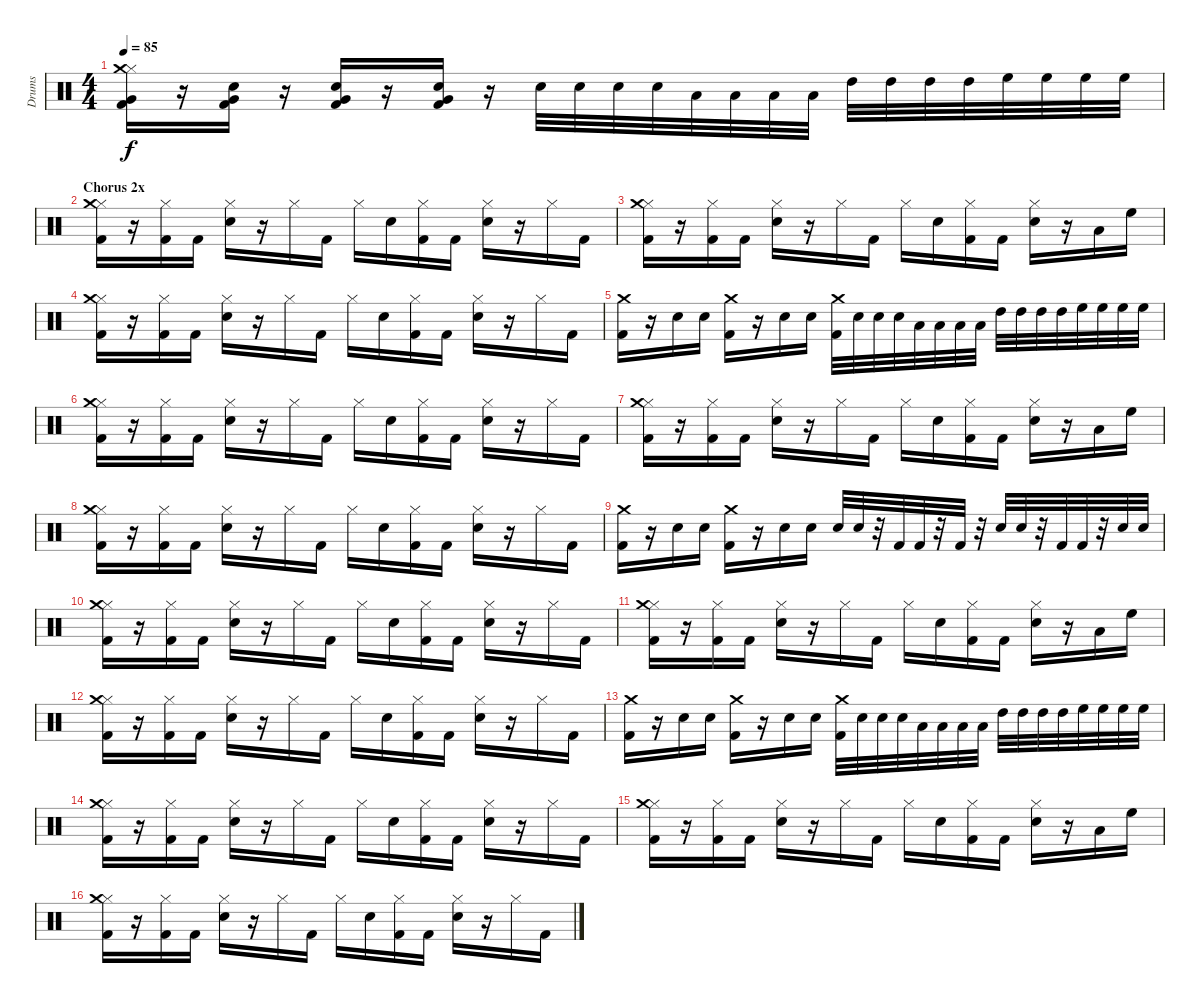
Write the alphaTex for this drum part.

\track ("Drums" "Drums") {instrument percussion}
\staff {score}
\articulation defaults
\ts (4 4)
\tempo 85
\clef neutral
\ks c
("Hi-Hat (closed)" "Kick (hit) 2" "Crash medium (hit)" "Very Low Tom (hit)").16{dy f} r.16 ("Kick (hit) 2" "Snare (hit) 2" "Very Low Tom (hit)").16 r.16 ("Kick (hit) 2" "Snare (hit) 2" "Very Low Tom (hit)").16 r.16 ("Kick (hit) 2" "Snare (hit) 2" "Very Low Tom (hit)").16 r.16 "Snare (hit) 2".32 "Snare (hit) 2".32 "Snare (hit) 2".32 "Snare (hit) 2".32 "Low Tom (hit)".32 "Low Tom (hit)".32 "Low Tom (hit)".32 "Low Tom (hit)".32 "High Tom (hit)".32 "High Tom (hit)".32 "High Tom (hit)".32 "High Tom (hit)".32 "High Floor Tom (hit)".32 "High Floor Tom (hit)".32 "High Floor Tom (hit)".32 "High Floor Tom (hit)".32 |
\section ("" "Chorus 2x")
("Hi-Hat (closed)" "Kick (hit) 2" "Crash medium (hit)").16 r.16 ("Hi-Hat (closed)" "Kick (hit) 2").16 "Kick (hit) 2".16 ("Hi-Hat (closed)" "Snare (hit) 2").16 r.16 "Hi-Hat (closed)".16 "Kick (hit) 2".16 "Hi-Hat (closed)".16 "Snare (hit) 2".16 ("Hi-Hat (closed)" "Kick (hit) 2").16 "Kick (hit) 2".16 ("Hi-Hat (closed)" "Snare (hit) 2").16 r.16 "Hi-Hat (closed)".16 "Kick (hit) 2".16 |
("Hi-Hat (closed)" "Kick (hit) 2" "Crash medium (hit)").16 r.16 ("Hi-Hat (closed)" "Kick (hit) 2").16 "Kick (hit) 2".16 ("Hi-Hat (closed)" "Snare (hit) 2").16 r.16 "Hi-Hat (closed)".16 "Kick (hit) 2".16 "Hi-Hat (closed)".16 "Snare (hit) 2".16 ("Hi-Hat (closed)" "Kick (hit) 2").16 "Kick (hit) 2".16 ("Hi-Hat (closed)" "Snare (hit) 2").16 r.16 "Low Tom (hit)".16 "High Floor Tom (hit)".16 |
("Hi-Hat (closed)" "Kick (hit) 2" "Crash medium (hit)").16 r.16 ("Hi-Hat (closed)" "Kick (hit) 2").16 "Kick (hit) 2".16 ("Hi-Hat (closed)" "Snare (hit) 2").16 r.16 "Hi-Hat (closed)".16 "Kick (hit) 2".16 "Hi-Hat (closed)".16 "Snare (hit) 2".16 ("Hi-Hat (closed)" "Kick (hit) 2").16 "Kick (hit) 2".16 ("Hi-Hat (closed)" "Snare (hit) 2").16 r.16 "Hi-Hat (closed)".16 "Kick (hit) 2".16 |
("Kick (hit) 2" "Crash medium (hit)").16 r.16 "Snare (hit) 2".16 "Snare (hit) 2".16 ("Kick (hit) 2" "Crash medium (hit)").16 r.16 "Snare (hit) 2".16 "Snare (hit) 2".16 ("Kick (hit) 2" "Crash medium (hit)").32 "Snare (hit) 2".32 "Snare (hit) 2".32 "Snare (hit) 2".32 "Low Tom (hit)".32 "Low Tom (hit)".32 "Low Tom (hit)".32 "Low Tom (hit)".32 "High Tom (hit)".32 "High Tom (hit)".32 "High Tom (hit)".32 "High Tom (hit)".32 "High Floor Tom (hit)".32 "High Floor Tom (hit)".32 "High Floor Tom (hit)".32 "High Floor Tom (hit)".32 |
("Hi-Hat (closed)" "Kick (hit) 2" "Crash medium (hit)").16 r.16 ("Hi-Hat (closed)" "Kick (hit) 2").16 "Kick (hit) 2".16 ("Hi-Hat (closed)" "Snare (hit) 2").16 r.16 "Hi-Hat (closed)".16 "Kick (hit) 2".16 "Hi-Hat (closed)".16 "Snare (hit) 2".16 ("Hi-Hat (closed)" "Kick (hit) 2").16 "Kick (hit) 2".16 ("Hi-Hat (closed)" "Snare (hit) 2").16 r.16 "Hi-Hat (closed)".16 "Kick (hit) 2".16 |
("Hi-Hat (closed)" "Kick (hit) 2" "Crash medium (hit)").16 r.16 ("Hi-Hat (closed)" "Kick (hit) 2").16 "Kick (hit) 2".16 ("Hi-Hat (closed)" "Snare (hit) 2").16 r.16 "Hi-Hat (closed)".16 "Kick (hit) 2".16 "Hi-Hat (closed)".16 "Snare (hit) 2".16 ("Hi-Hat (closed)" "Kick (hit) 2").16 "Kick (hit) 2".16 ("Hi-Hat (closed)" "Snare (hit) 2").16 r.16 "Low Tom (hit)".16 "High Floor Tom (hit)".16 |
("Hi-Hat (closed)" "Kick (hit) 2" "Crash medium (hit)").16 r.16 ("Hi-Hat (closed)" "Kick (hit) 2").16 "Kick (hit) 2".16 ("Hi-Hat (closed)" "Snare (hit) 2").16 r.16 "Hi-Hat (closed)".16 "Kick (hit) 2".16 "Hi-Hat (closed)".16 "Snare (hit) 2".16 ("Hi-Hat (closed)" "Kick (hit) 2").16 "Kick (hit) 2".16 ("Hi-Hat (closed)" "Snare (hit) 2").16 r.16 "Hi-Hat (closed)".16 "Kick (hit) 2".16 |
("Kick (hit) 2" "Crash medium (hit)").16 r.16 "Snare (hit) 2".16 "Snare (hit) 2".16 ("Kick (hit) 2" "Crash medium (hit)").16 r.16 "Snare (hit) 2".16 "Snare (hit) 2".16 "Snare (hit) 2".32 "Snare (hit) 2".32 r.32 "Kick (hit) 2".32 "Kick (hit) 2".32 r.32 "Kick (hit) 2".32 r.32 "Snare (hit) 2".32 "Snare (hit) 2".32 r.32 "Kick (hit) 2".32 "Kick (hit) 2".32 r.32 "Snare (hit) 2".32 "Snare (hit) 2".32 |
("Hi-Hat (closed)" "Kick (hit) 2" "Crash medium (hit)").16 r.16 ("Hi-Hat (closed)" "Kick (hit) 2").16 "Kick (hit) 2".16 ("Hi-Hat (closed)" "Snare (hit) 2").16 r.16 "Hi-Hat (closed)".16 "Kick (hit) 2".16 "Hi-Hat (closed)".16 "Snare (hit) 2".16 ("Hi-Hat (closed)" "Kick (hit) 2").16 "Kick (hit) 2".16 ("Hi-Hat (closed)" "Snare (hit) 2").16 r.16 "Hi-Hat (closed)".16 "Kick (hit) 2".16 |
("Hi-Hat (closed)" "Kick (hit) 2" "Crash medium (hit)").16 r.16 ("Hi-Hat (closed)" "Kick (hit) 2").16 "Kick (hit) 2".16 ("Hi-Hat (closed)" "Snare (hit) 2").16 r.16 "Hi-Hat (closed)".16 "Kick (hit) 2".16 "Hi-Hat (closed)".16 "Snare (hit) 2".16 ("Hi-Hat (closed)" "Kick (hit) 2").16 "Kick (hit) 2".16 ("Hi-Hat (closed)" "Snare (hit) 2").16 r.16 "Low Tom (hit)".16 "High Floor Tom (hit)".16 |
("Hi-Hat (closed)" "Kick (hit) 2" "Crash medium (hit)").16 r.16 ("Hi-Hat (closed)" "Kick (hit) 2").16 "Kick (hit) 2".16 ("Hi-Hat (closed)" "Snare (hit) 2").16 r.16 "Hi-Hat (closed)".16 "Kick (hit) 2".16 "Hi-Hat (closed)".16 "Snare (hit) 2".16 ("Hi-Hat (closed)" "Kick (hit) 2").16 "Kick (hit) 2".16 ("Hi-Hat (closed)" "Snare (hit) 2").16 r.16 "Hi-Hat (closed)".16 "Kick (hit) 2".16 |
("Kick (hit) 2" "Crash medium (hit)").16 r.16 "Snare (hit) 2".16 "Snare (hit) 2".16 ("Kick (hit) 2" "Crash medium (hit)").16 r.16 "Snare (hit) 2".16 "Snare (hit) 2".16 ("Kick (hit) 2" "Crash medium (hit)").32 "Snare (hit) 2".32 "Snare (hit) 2".32 "Snare (hit) 2".32 "Low Tom (hit)".32 "Low Tom (hit)".32 "Low Tom (hit)".32 "Low Tom (hit)".32 "High Tom (hit)".32 "High Tom (hit)".32 "High Tom (hit)".32 "High Tom (hit)".32 "High Floor Tom (hit)".32 "High Floor Tom (hit)".32 "High Floor Tom (hit)".32 "High Floor Tom (hit)".32 |
("Hi-Hat (closed)" "Kick (hit) 2" "Crash medium (hit)").16 r.16 ("Hi-Hat (closed)" "Kick (hit) 2").16 "Kick (hit) 2".16 ("Hi-Hat (closed)" "Snare (hit) 2").16 r.16 "Hi-Hat (closed)".16 "Kick (hit) 2".16 "Hi-Hat (closed)".16 "Snare (hit) 2".16 ("Hi-Hat (closed)" "Kick (hit) 2").16 "Kick (hit) 2".16 ("Hi-Hat (closed)" "Snare (hit) 2").16 r.16 "Hi-Hat (closed)".16 "Kick (hit) 2".16 |
("Hi-Hat (closed)" "Kick (hit) 2" "Crash medium (hit)").16 r.16 ("Hi-Hat (closed)" "Kick (hit) 2").16 "Kick (hit) 2".16 ("Hi-Hat (closed)" "Snare (hit) 2").16 r.16 "Hi-Hat (closed)".16 "Kick (hit) 2".16 "Hi-Hat (closed)".16 "Snare (hit) 2".16 ("Hi-Hat (closed)" "Kick (hit) 2").16 "Kick (hit) 2".16 ("Hi-Hat (closed)" "Snare (hit) 2").16 r.16 "Low Tom (hit)".16 "High Floor Tom (hit)".16 |
("Hi-Hat (closed)" "Kick (hit) 2" "Crash medium (hit)").16 r.16 ("Hi-Hat (closed)" "Kick (hit) 2").16 "Kick (hit) 2".16 ("Hi-Hat (closed)" "Snare (hit) 2").16 r.16 "Hi-Hat (closed)".16 "Kick (hit) 2".16 "Hi-Hat (closed)".16 "Snare (hit) 2".16 ("Hi-Hat (closed)" "Kick (hit) 2").16 "Kick (hit) 2".16 ("Hi-Hat (closed)" "Snare (hit) 2").16 r.16 "Hi-Hat (closed)".16 "Kick (hit) 2".16
